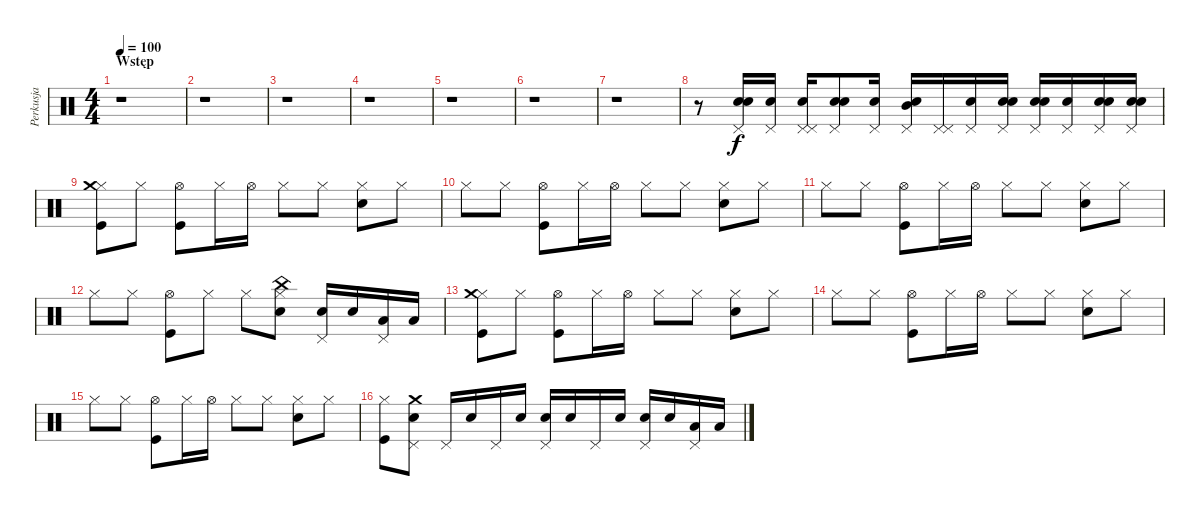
\track ("Perkusja" "Perkusja") {instrument percussion}
\staff {score}
\articulation defaults
\ts (4 4)
\section ("" "Wstęp")
\tempo 100
\clef neutral
\ks c
r.1{dy f} |
r.1 |
r.1 |
r.1 |
r.1 |
r.1 |
r.1 |
r.8 ("Snare (hit) 2" "Electric Snare (hit)" "Pedal Hi-Hat (hit)").16 ("Snare (hit) 2" "Pedal Hi-Hat (hit)").16 ("Snare (hit) 2" "Pedal Hi-Hat (hit)" "Pedal Hi-Hat (hit)").16 ("Snare (hit) 2" "Electric Snare (hit)" "Pedal Hi-Hat (hit)").8 ("Snare (hit) 2" "Pedal Hi-Hat (hit)").16 ("Snare (hit) 2" "Pedal Hi-Hat (hit)" "Mid Tom (hit)").16 ("Pedal Hi-Hat (hit)" "Pedal Hi-Hat (hit)").16 ("Snare (hit) 2" "Pedal Hi-Hat (hit)").16 ("Snare (hit) 2" "Electric Snare (hit)" "Pedal Hi-Hat (hit)").16 ("Snare (hit) 2" "Electric Snare (hit)" "Pedal Hi-Hat (hit)").16 ("Snare (hit) 2" "Pedal Hi-Hat (hit)").16 ("Snare (hit) 2" "Electric Snare (hit)" "Pedal Hi-Hat (hit)").16 ("Snare (hit) 2" "Electric Snare (hit)" "Pedal Hi-Hat (hit)").16 |
("Kick (hit)" "Hi-Hat (closed)" "Crash medium (hit)").8 "Hi-Hat (closed)".8 ("Kick (hit)" "Hi-Hat (open)").8 "Hi-Hat (closed)".16 "Hi-Hat (open)".16 "Hi-Hat (closed)".8 "Hi-Hat (closed)".8 ("Electric Snare (hit)" "Hi-Hat (closed)").8 "Hi-Hat (closed)".8 |
"Hi-Hat (closed)".8 "Hi-Hat (closed)".8 ("Kick (hit)" "Hi-Hat (open)").8 "Hi-Hat (closed)".16 "Hi-Hat (open)".16 "Hi-Hat (closed)".8 "Hi-Hat (closed)".8 ("Electric Snare (hit)" "Hi-Hat (closed)").8 "Hi-Hat (closed)".8 |
"Hi-Hat (closed)".8 "Hi-Hat (closed)".8 ("Kick (hit)" "Hi-Hat (open)").8 "Hi-Hat (closed)".16 "Hi-Hat (open)".16 "Hi-Hat (closed)".8 "Hi-Hat (closed)".8 ("Electric Snare (hit)" "Hi-Hat (closed)").8 "Hi-Hat (closed)".8 |
"Hi-Hat (closed)".8 "Hi-Hat (closed)".8 ("Kick (hit)" "Hi-Hat (open)").8 "Hi-Hat (closed)".8 "Hi-Hat (closed)".8 ("Electric Snare (hit)" "Hi-Hat (closed)" "China (hit)").8 ("Electric Snare (hit)" "Pedal Hi-Hat (hit)").16 "Electric Snare (hit)".16 ("Pedal Hi-Hat (hit)" "Low Tom (hit)").16 "Low Tom (hit)".16 |
("Kick (hit)" "Hi-Hat (closed)" "Crash medium (hit)").8 "Hi-Hat (closed)".8 ("Kick (hit)" "Hi-Hat (open)").8 "Hi-Hat (closed)".16 "Hi-Hat (open)".16 "Hi-Hat (closed)".8 "Hi-Hat (closed)".8 ("Electric Snare (hit)" "Hi-Hat (closed)").8 "Hi-Hat (closed)".8 |
"Hi-Hat (closed)".8 "Hi-Hat (closed)".8 ("Kick (hit)" "Hi-Hat (open)").8 "Hi-Hat (closed)".16 "Hi-Hat (open)".16 "Hi-Hat (closed)".8 "Hi-Hat (closed)".8 ("Electric Snare (hit)" "Hi-Hat (closed)").8 "Hi-Hat (closed)".8 |
"Hi-Hat (closed)".8 "Hi-Hat (closed)".8 ("Kick (hit)" "Hi-Hat (open)").8 "Hi-Hat (closed)".16 "Hi-Hat (open)".16 "Hi-Hat (closed)".8 "Hi-Hat (closed)".8 ("Electric Snare (hit)" "Hi-Hat (closed)").8 "Hi-Hat (closed)".8 |
("Kick (hit)" "Hi-Hat (closed)").8 ("Electric Snare (hit)" "Pedal Hi-Hat (hit)" "Crash medium (hit)").8 "Pedal Hi-Hat (hit)".16 "Electric Snare (hit)".16 "Pedal Hi-Hat (hit)".16 "Electric Snare (hit)".16 ("Electric Snare (hit)" "Pedal Hi-Hat (hit)").16 "Electric Snare (hit)".16 "Pedal Hi-Hat (hit)".16 "Electric Snare (hit)".16 ("Electric Snare (hit)" "Pedal Hi-Hat (hit)").16 "Electric Snare (hit)".16 ("Pedal Hi-Hat (hit)" "Low Tom (hit)").16 "Low Tom (hit)".16
